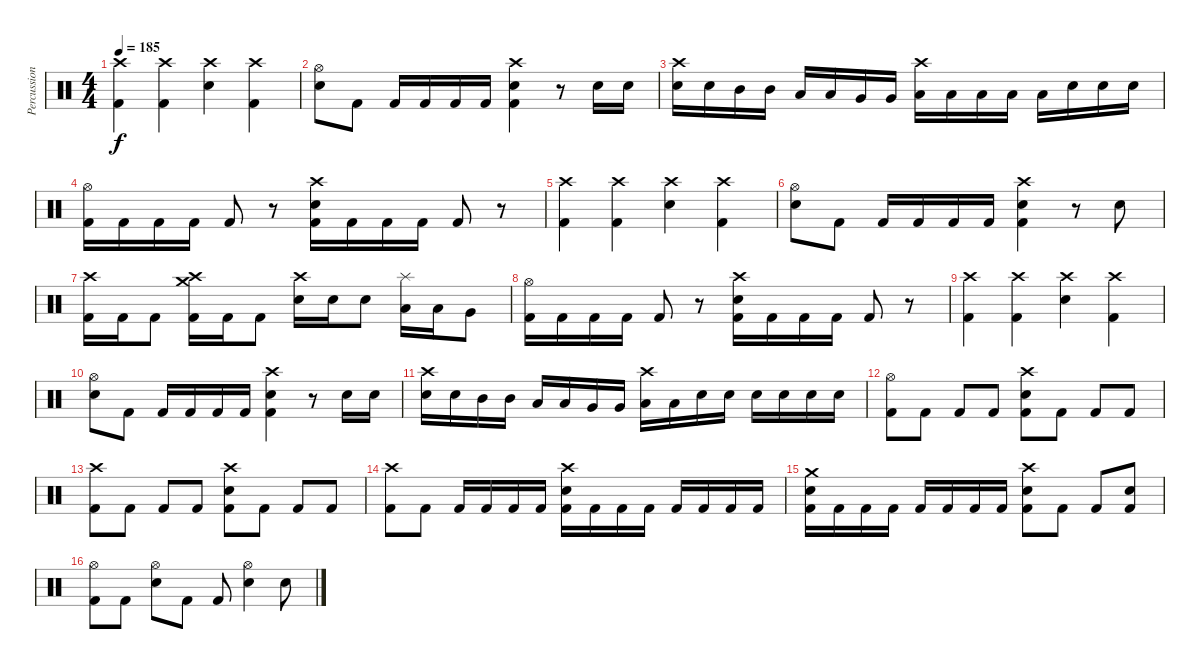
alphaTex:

\track ("Percussion" "Percussion") {instrument percussion}
\staff {score}
\articulation defaults
\ts (4 4)
\tempo 185
\clef neutral
\ks c
("Crash high (hit)" "Kick (hit) 2").4{dy f} ("Crash high (hit)" "Kick (hit) 2").4 ("Crash high (hit)" "Electric Snare (hit)").4 ("Crash high (hit)" "Kick (hit) 2").4 |
("Hi-Hat (open)" "Electric Snare (hit)").8 "Kick (hit) 2".8 "Kick (hit) 2".16 "Kick (hit) 2".16 "Kick (hit) 2".16 "Kick (hit) 2".16 ("Crash high (hit)" "Electric Snare (hit)" "Kick (hit) 2").4 r.8 "Electric Snare (hit)".16 "Electric Snare (hit)".16 |
("Crash high (hit)" "Electric Snare (hit)").16 "Electric Snare (hit)".16 "Mid Tom (hit)".16 "Mid Tom (hit)".16 "Low Tom (hit)".16 "Low Tom (hit)".16 "Very Low Tom (hit)".16 "Very Low Tom (hit)".16 ("Crash high (hit)" "Low Floor Tom (hit)").16 "Low Floor Tom (hit)".16 "Low Floor Tom (hit)".16 "Low Floor Tom (hit)".16 "Low Floor Tom (hit)".16 "Electric Snare (hit)".16 "Electric Snare (hit)".16 "Electric Snare (hit)".16 |
("Hi-Hat (open)" "Kick (hit) 2").16 "Kick (hit) 2".16 "Kick (hit) 2".16 "Kick (hit) 2".16 "Kick (hit) 2".8 r.8 ("Crash high (hit)" "Electric Snare (hit)" "Kick (hit) 2").16 "Kick (hit) 2".16 "Kick (hit) 2".16 "Kick (hit) 2".16 "Kick (hit) 2".8 r.8 |
("Crash high (hit)" "Kick (hit) 2").4 ("Crash high (hit)" "Kick (hit) 2").4 ("Crash high (hit)" "Electric Snare (hit)").4 ("Crash high (hit)" "Kick (hit) 2").4 |
("Hi-Hat (open)" "Electric Snare (hit)").8 "Kick (hit) 2".8 "Kick (hit) 2".16 "Kick (hit) 2".16 "Kick (hit) 2".16 "Kick (hit) 2".16 ("Crash high (hit)" "Electric Snare (hit)" "Kick (hit) 2").4 r.8 "Electric Snare (hit)".8 |
("Crash high (hit)" "Kick (hit) 2").16 "Kick (hit) 2".16 "Kick (hit) 2".8 ("Crash high (hit)" "Crash medium (hit)" "Kick (hit) 2").16 "Kick (hit) 2".16 "Kick (hit) 2".8 ("Crash high (hit)" "Electric Snare (hit)").16 "Electric Snare (hit)".16 "Electric Snare (hit)".8 ("Splash (hit)" "Low Tom (hit)").16 "Low Tom (hit)".16 "Very Low Tom (hit)".8 |
("Hi-Hat (open)" "Kick (hit) 2").16 "Kick (hit) 2".16 "Kick (hit) 2".16 "Kick (hit) 2".16 "Kick (hit) 2".8 r.8 ("Crash high (hit)" "Electric Snare (hit)" "Kick (hit) 2").16 "Kick (hit) 2".16 "Kick (hit) 2".16 "Kick (hit) 2".16 "Kick (hit) 2".8 r.8 |
("Crash high (hit)" "Kick (hit) 2").4 ("Crash high (hit)" "Kick (hit) 2").4 ("Crash high (hit)" "Electric Snare (hit)").4 ("Crash high (hit)" "Kick (hit) 2").4 |
("Hi-Hat (open)" "Electric Snare (hit)").8 "Kick (hit) 2".8 "Kick (hit) 2".16 "Kick (hit) 2".16 "Kick (hit) 2".16 "Kick (hit) 2".16 ("Crash high (hit)" "Electric Snare (hit)" "Kick (hit) 2").4 r.8 "Electric Snare (hit)".16 "Electric Snare (hit)".16 |
("Crash high (hit)" "Electric Snare (hit)").16 "Electric Snare (hit)".16 "Mid Tom (hit)".16 "Mid Tom (hit)".16 "Low Tom (hit)".16 "Low Tom (hit)".16 "Very Low Tom (hit)".16 "Very Low Tom (hit)".16 ("Crash high (hit)" "Low Floor Tom (hit)").16 "Low Floor Tom (hit)".16 "Electric Snare (hit)".16 "Electric Snare (hit)".16 "Electric Snare (hit)".16 "Electric Snare (hit)".16 "Electric Snare (hit)".16 "Electric Snare (hit)".16 |
("Hi-Hat (open)" "Kick (hit) 2").8 "Kick (hit) 2".8 "Kick (hit) 2".8 "Kick (hit) 2".8 ("Crash high (hit)" "Electric Snare (hit)" "Kick (hit) 2").8 "Kick (hit) 2".8 "Kick (hit) 2".8 "Kick (hit) 2".8 |
("Crash high (hit)" "Kick (hit) 2").8 "Kick (hit) 2".8 "Kick (hit) 2".8 "Kick (hit) 2".8 ("Crash high (hit)" "Electric Snare (hit)" "Kick (hit) 2").8 "Kick (hit) 2".8 "Kick (hit) 2".8 "Kick (hit) 2".8 |
("Crash high (hit)" "Kick (hit) 2").8 "Kick (hit) 2".8 "Kick (hit) 2".16 "Kick (hit) 2".16 "Kick (hit) 2".16 "Kick (hit) 2".16 ("Crash high (hit)" "Electric Snare (hit)" "Kick (hit) 2").16 "Kick (hit) 2".16 "Kick (hit) 2".16 "Kick (hit) 2".16 "Kick (hit) 2".16 "Kick (hit) 2".16 "Kick (hit) 2".16 "Kick (hit) 2".16 |
("Crash medium (hit)" "Electric Snare (hit)" "Kick (hit) 2").16 "Kick (hit) 2".16 "Kick (hit) 2".16 "Kick (hit) 2".16 "Kick (hit) 2".16 "Kick (hit) 2".16 "Kick (hit) 2".16 "Kick (hit) 2".16 ("Crash high (hit)" "Electric Snare (hit)" "Kick (hit) 2").8 "Kick (hit) 2".8 "Kick (hit) 2".8 ("Electric Snare (hit)" "Kick (hit) 2").8 |
("Hi-Hat (open)" "Kick (hit) 2").8 "Kick (hit) 2".8 ("Hi-Hat (open)" "Electric Snare (hit)").8 "Kick (hit) 2".8 "Kick (hit) 2".8 ("Hi-Hat (open)" "Electric Snare (hit)").4 "Electric Snare (hit)".8
